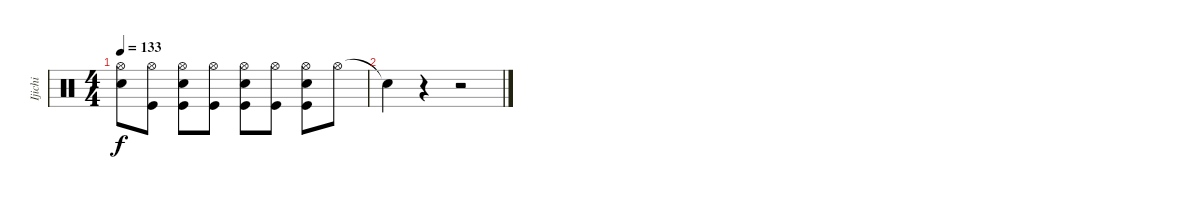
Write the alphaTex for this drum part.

\track ("Ijichi" "Ijichi") {instrument percussion}
\staff {score}
\articulation defaults
\ts (4 4)
\tempo 133
\clef neutral
\ks c
("Hi-Hat (open)" "Electric Snare (hit)").8{dy f} ("Hi-Hat (open)" "Kick (hit)").8 ("Hi-Hat (open)" "Electric Snare (hit)" "Kick (hit)").8 ("Hi-Hat (open)" "Kick (hit)").8 ("Hi-Hat (open)" "Electric Snare (hit)" "Kick (hit)").8 ("Hi-Hat (open)" "Kick (hit)").8 ("Hi-Hat (open)" "Electric Snare (hit)" "Kick (hit)").8 "Hi-Hat (open)".8 |
"Snare (hit)"{t}.4 r.4 r.2
